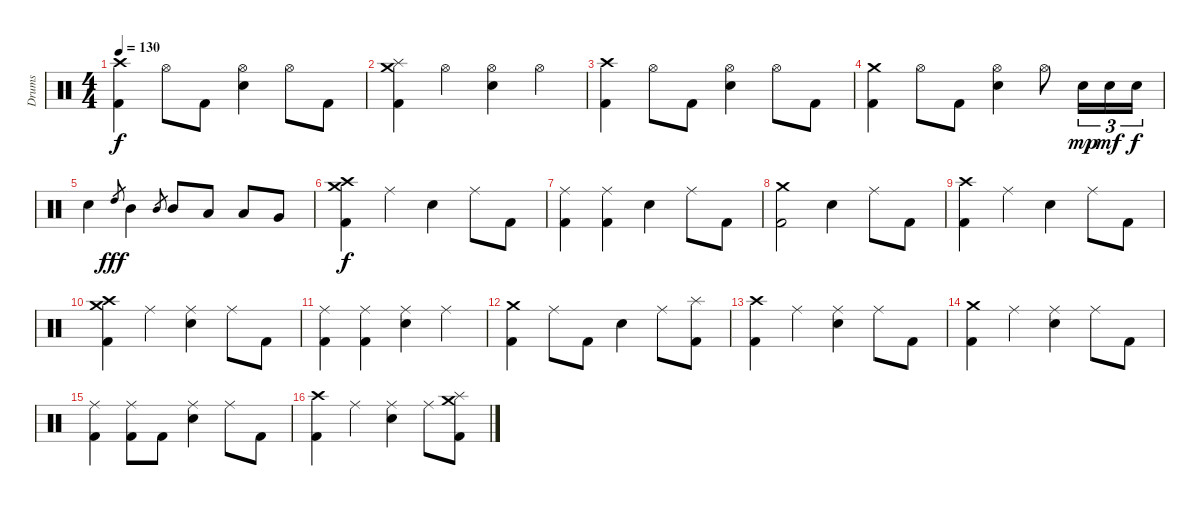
\track ("Drums" "Drums") {instrument percussion}
\staff {score}
\articulation defaults
\ts (4 4)
\tempo 130
\clef neutral
\ks c
("Crash high (hit)" "Kick (hit) 2").4{dy f} "Hi-Hat (open)".8 "Kick (hit) 2".8 ("Hi-Hat (open)" "Snare (hit) 2").4 "Hi-Hat (open)".8 "Kick (hit) 2".8 |
("Crash medium (hit)" "Splash (hit)" "Kick (hit) 2").4 "Hi-Hat (open)".4 ("Hi-Hat (open)" "Snare (hit) 2").4 "Hi-Hat (open)".4 |
("Crash high (hit)" "Kick (hit) 2").4 "Hi-Hat (open)".8 "Kick (hit) 2".8 ("Hi-Hat (open)" "Snare (hit) 2").4 "Hi-Hat (open)".8 "Kick (hit) 2".8 |
("Crash medium (hit)" "Kick (hit) 2").4 "Hi-Hat (open)".8 "Kick (hit) 2".8 ("Hi-Hat (open)" "Snare (hit) 2").4 "Hi-Hat (open)".8 "Snare (hit) 2".16{tu (3 2) dy mp} "Snare (hit) 2".16{tu (3 2) dy mf} "Snare (hit) 2".16{tu (3 2) dy f} |
"Snare (hit) 2".4 "High Tom (hit)".8{gr dy fff} "Mid Tom (hit)".4 "Mid Tom (hit)".8{gr} "Mid Tom (hit)".8 "Low Tom (hit)".8 "Low Tom (hit)".8 "Very Low Tom (hit)".8 |
("Crash high (hit)" "Crash medium (hit)" "Kick (hit) 2").4{dy f} "Ride (middle)".4 "Snare (hit) 2".4 "Ride (middle)".8 "Kick (hit) 2".8 |
("Ride (middle)" "Kick (hit) 2").4 ("Ride (middle)" "Kick (hit) 2").4 "Snare (hit) 2".4 "Ride (middle)".8 "Kick (hit) 2".8 |
("Crash medium (hit)" "Kick (hit) 2").2 "Snare (hit) 2".4 "Ride (middle)".8 "Kick (hit) 2".8 |
("Crash high (hit)" "Kick (hit) 2").4 "Ride (middle)".4 "Snare (hit) 2".4 "Ride (middle)".8 "Kick (hit) 2".8 |
("Crash high (hit)" "Crash medium (hit)" "Kick (hit) 2").4 "Ride (middle)".4 ("Ride (middle)" "Snare (hit) 2").4 "Ride (middle)".8 "Kick (hit) 2".8 |
("Ride (middle)" "Kick (hit) 2").4 ("Ride (middle)" "Kick (hit) 2").4 ("Ride (middle)" "Snare (hit) 2").4 "Ride (middle)".4 |
("Crash medium (hit)" "Kick (hit) 2").4 "Ride (middle)".8 "Kick (hit) 2".8 "Snare (hit) 2".4 "Ride (middle)".8 ("Splash (hit)" "Kick (hit) 2").8 |
("Crash high (hit)" "Kick (hit) 2").4 "Ride (middle)".4 ("Ride (middle)" "Snare (hit) 2").4 "Ride (middle)".8 "Kick (hit) 2".8 |
("Crash medium (hit)" "Kick (hit) 2").4 "Ride (middle)".4 ("Ride (middle)" "Snare (hit) 2").4 "Ride (middle)".8 "Kick (hit) 2".8 |
("Ride (middle)" "Kick (hit) 2").4 ("Ride (middle)" "Kick (hit) 2").8 "Kick (hit) 2".8 ("Ride (middle)" "Snare (hit) 2").4 "Ride (middle)".8 "Kick (hit) 2".8 |
("Crash high (hit)" "Kick (hit) 2").4 "Ride (middle)".4 ("Ride (middle)" "Snare (hit) 2").4 "Ride (middle)".8 ("Splash (hit)" "Crash medium (hit)" "Kick (hit) 2").8
